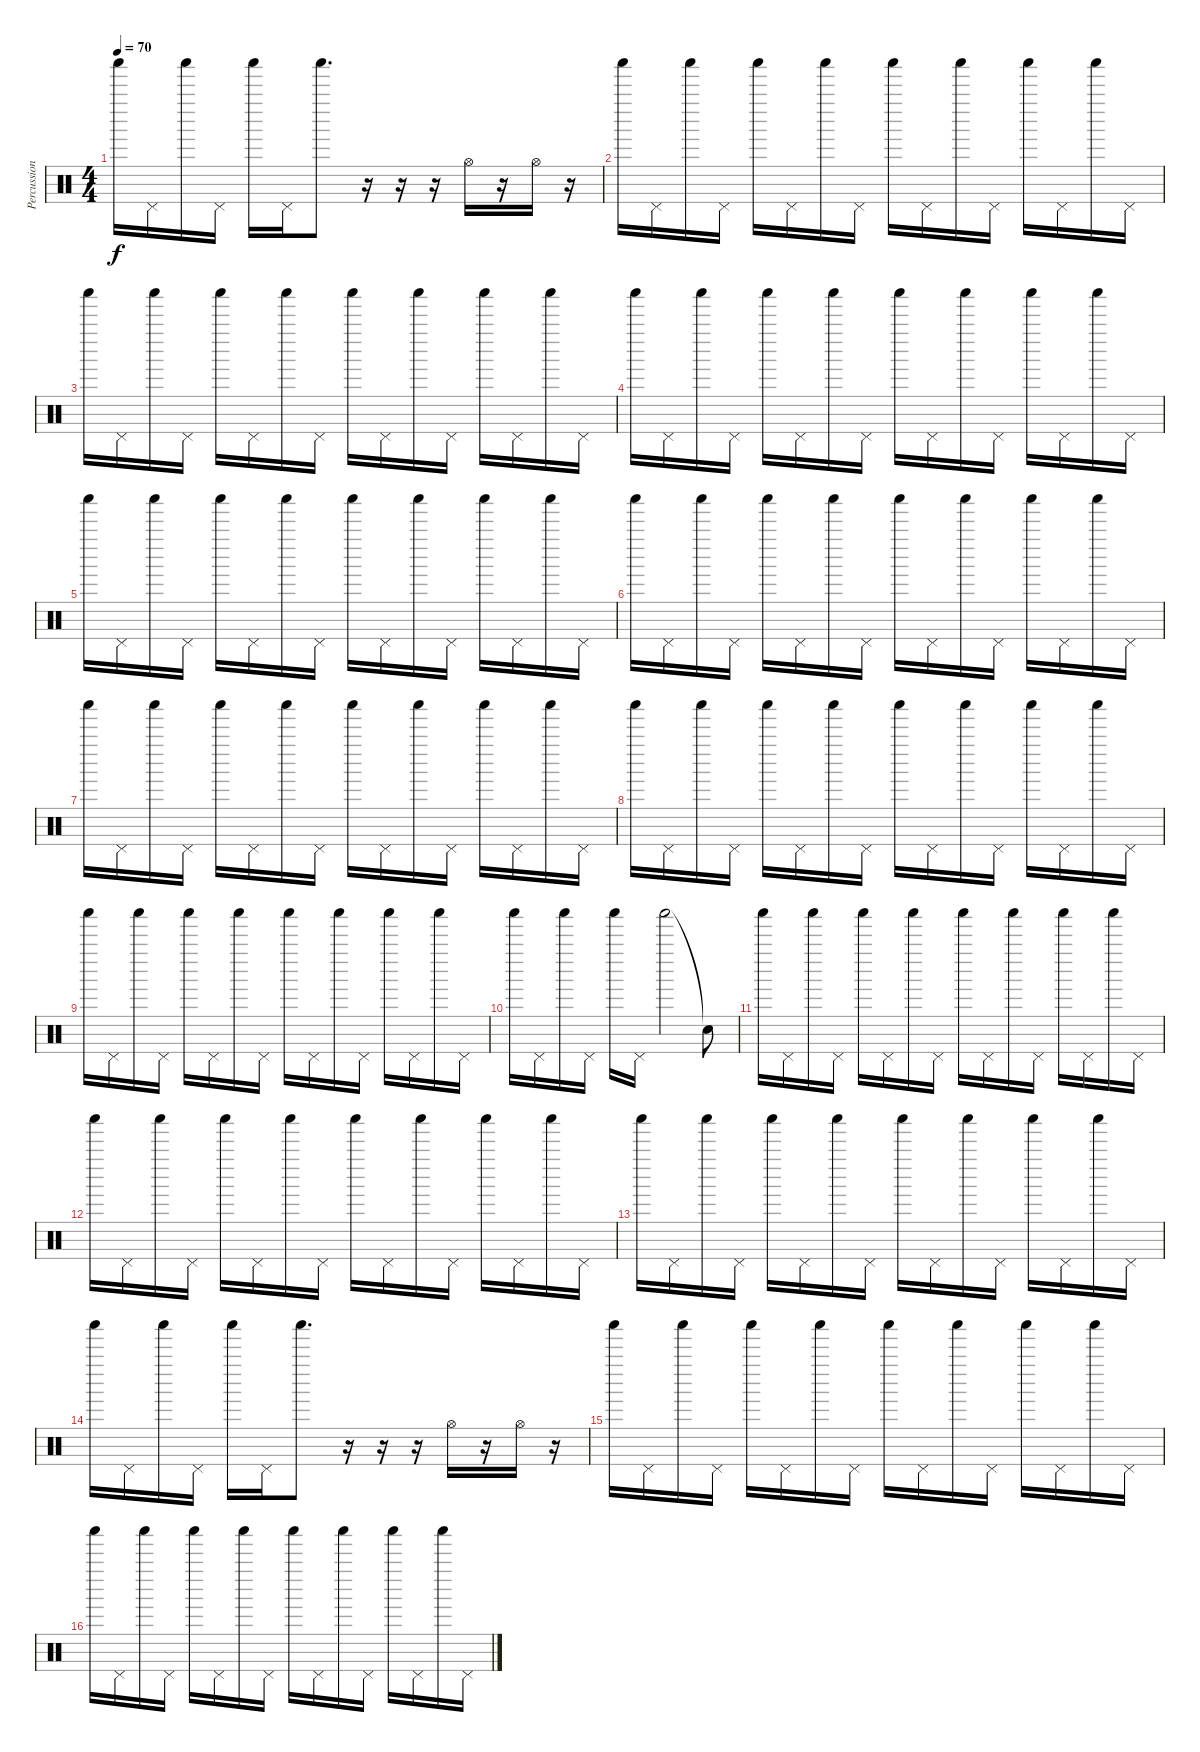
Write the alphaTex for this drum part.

\track ("Percussion 2" "Percussion") {instrument percussion}
\staff {score}
\articulation defaults
\ts (4 4)
\tempo 70
\clef neutral
\ks c "Shaker (hit)".16{dy f} "Pedal Hi-Hat (hit)".16 "Shaker (hit)".16 "Pedal Hi-Hat (hit)".16 "Shaker (hit)".16 "Pedal Hi-Hat (hit)".16 "Shaker (hit)".8{d}
r.16 r.16 r.16 "Hi-Hat (open)".16 r.16 "Hi-Hat (open)".16 r.16 |
"Shaker (hit)".16 "Pedal Hi-Hat (hit)".16 "Shaker (hit)".16 "Pedal Hi-Hat (hit)".16 "Shaker (hit)".16 "Pedal Hi-Hat (hit)".16 "Shaker (hit)".16 "Pedal Hi-Hat (hit)".16 "Shaker (hit)".16 "Pedal Hi-Hat (hit)".16 "Shaker (hit)".16 "Pedal Hi-Hat (hit)".16 "Shaker (hit)".16 "Pedal Hi-Hat (hit)".16 "Shaker (hit)".16 "Pedal Hi-Hat (hit)".16 |
"Shaker (hit)".16 "Pedal Hi-Hat (hit)".16 "Shaker (hit)".16 "Pedal Hi-Hat (hit)".16 "Shaker (hit)".16 "Pedal Hi-Hat (hit)".16 "Shaker (hit)".16 "Pedal Hi-Hat (hit)".16 "Shaker (hit)".16 "Pedal Hi-Hat (hit)".16 "Shaker (hit)".16 "Pedal Hi-Hat (hit)".16 "Shaker (hit)".16 "Pedal Hi-Hat (hit)".16 "Shaker (hit)".16 "Pedal Hi-Hat (hit)".16 |
"Shaker (hit)".16 "Pedal Hi-Hat (hit)".16 "Shaker (hit)".16 "Pedal Hi-Hat (hit)".16 "Shaker (hit)".16 "Pedal Hi-Hat (hit)".16 "Shaker (hit)".16 "Pedal Hi-Hat (hit)".16 "Shaker (hit)".16 "Pedal Hi-Hat (hit)".16 "Shaker (hit)".16 "Pedal Hi-Hat (hit)".16 "Shaker (hit)".16 "Pedal Hi-Hat (hit)".16 "Shaker (hit)".16 "Pedal Hi-Hat (hit)".16 |
"Shaker (hit)".16 "Pedal Hi-Hat (hit)".16 "Shaker (hit)".16 "Pedal Hi-Hat (hit)".16 "Shaker (hit)".16 "Pedal Hi-Hat (hit)".16 "Shaker (hit)".16 "Pedal Hi-Hat (hit)".16 "Shaker (hit)".16 "Pedal Hi-Hat (hit)".16 "Shaker (hit)".16 "Pedal Hi-Hat (hit)".16 "Shaker (hit)".16 "Pedal Hi-Hat (hit)".16 "Shaker (hit)".16 "Pedal Hi-Hat (hit)".16 |
"Shaker (hit)".16 "Pedal Hi-Hat (hit)".16 "Shaker (hit)".16 "Pedal Hi-Hat (hit)".16 "Shaker (hit)".16 "Pedal Hi-Hat (hit)".16 "Shaker (hit)".16 "Pedal Hi-Hat (hit)".16 "Shaker (hit)".16 "Pedal Hi-Hat (hit)".16 "Shaker (hit)".16 "Pedal Hi-Hat (hit)".16 "Shaker (hit)".16 "Pedal Hi-Hat (hit)".16 "Shaker (hit)".16 "Pedal Hi-Hat (hit)".16 |
"Shaker (hit)".16 "Pedal Hi-Hat (hit)".16 "Shaker (hit)".16 "Pedal Hi-Hat (hit)".16 "Shaker (hit)".16 "Pedal Hi-Hat (hit)".16 "Shaker (hit)".16 "Pedal Hi-Hat (hit)".16 "Shaker (hit)".16 "Pedal Hi-Hat (hit)".16 "Shaker (hit)".16 "Pedal Hi-Hat (hit)".16 "Shaker (hit)".16 "Pedal Hi-Hat (hit)".16 "Shaker (hit)".16 "Pedal Hi-Hat (hit)".16 |
"Shaker (hit)".16 "Pedal Hi-Hat (hit)".16 "Shaker (hit)".16 "Pedal Hi-Hat (hit)".16 "Shaker (hit)".16 "Pedal Hi-Hat (hit)".16 "Shaker (hit)".16 "Pedal Hi-Hat (hit)".16 "Shaker (hit)".16 "Pedal Hi-Hat (hit)".16 "Shaker (hit)".16 "Pedal Hi-Hat (hit)".16 "Shaker (hit)".16 "Pedal Hi-Hat (hit)".16 "Shaker (hit)".16 "Pedal Hi-Hat (hit)".16 |
"Shaker (hit)".16 "Pedal Hi-Hat (hit)".16 "Shaker (hit)".16 "Pedal Hi-Hat (hit)".16 "Shaker (hit)".16 "Pedal Hi-Hat (hit)".16 "Shaker (hit)".16 "Pedal Hi-Hat (hit)".16 "Shaker (hit)".16 "Pedal Hi-Hat (hit)".16 "Shaker (hit)".16 "Pedal Hi-Hat (hit)".16 "Shaker (hit)".16 "Pedal Hi-Hat (hit)".16 "Shaker (hit)".16 "Pedal Hi-Hat (hit)".16 |
"Shaker (hit)".16 "Pedal Hi-Hat (hit)".16 "Shaker (hit)".16 "Pedal Hi-Hat (hit)".16 "Shaker (hit)".16 "Pedal Hi-Hat (hit)".16 "Shaker (hit)".2 "Snare (hit)"{t}.8 |
"Shaker (hit)".16 "Pedal Hi-Hat (hit)".16 "Shaker (hit)".16 "Pedal Hi-Hat (hit)".16 "Shaker (hit)".16 "Pedal Hi-Hat (hit)".16 "Shaker (hit)".16 "Pedal Hi-Hat (hit)".16 "Shaker (hit)".16 "Pedal Hi-Hat (hit)".16 "Shaker (hit)".16 "Pedal Hi-Hat (hit)".16 "Shaker (hit)".16 "Pedal Hi-Hat (hit)".16 "Shaker (hit)".16 "Pedal Hi-Hat (hit)".16 |
"Shaker (hit)".16 "Pedal Hi-Hat (hit)".16 "Shaker (hit)".16 "Pedal Hi-Hat (hit)".16 "Shaker (hit)".16 "Pedal Hi-Hat (hit)".16 "Shaker (hit)".16 "Pedal Hi-Hat (hit)".16 "Shaker (hit)".16 "Pedal Hi-Hat (hit)".16 "Shaker (hit)".16 "Pedal Hi-Hat (hit)".16 "Shaker (hit)".16 "Pedal Hi-Hat (hit)".16 "Shaker (hit)".16 "Pedal Hi-Hat (hit)".16 |
"Shaker (hit)".16 "Pedal Hi-Hat (hit)".16 "Shaker (hit)".16 "Pedal Hi-Hat (hit)".16 "Shaker (hit)".16 "Pedal Hi-Hat (hit)".16 "Shaker (hit)".16 "Pedal Hi-Hat (hit)".16 "Shaker (hit)".16 "Pedal Hi-Hat (hit)".16 "Shaker (hit)".16 "Pedal Hi-Hat (hit)".16 "Shaker (hit)".16 "Pedal Hi-Hat (hit)".16 "Shaker (hit)".16 "Pedal Hi-Hat (hit)".16 |
"Shaker (hit)".16 "Pedal Hi-Hat (hit)".16 "Shaker (hit)".16 "Pedal Hi-Hat (hit)".16 "Shaker (hit)".16 "Pedal Hi-Hat (hit)".16 "Shaker (hit)".8{d} r.16 r.16 r.16 "Hi-Hat (open)".16 r.16 "Hi-Hat (open)".16 r.16 |
"Shaker (hit)".16 "Pedal Hi-Hat (hit)".16 "Shaker (hit)".16 "Pedal Hi-Hat (hit)".16 "Shaker (hit)".16 "Pedal Hi-Hat (hit)".16 "Shaker (hit)".16 "Pedal Hi-Hat (hit)".16 "Shaker (hit)".16 "Pedal Hi-Hat (hit)".16 "Shaker (hit)".16 "Pedal Hi-Hat (hit)".16 "Shaker (hit)".16 "Pedal Hi-Hat (hit)".16 "Shaker (hit)".16 "Pedal Hi-Hat (hit)".16 |
"Shaker (hit)".16 "Pedal Hi-Hat (hit)".16 "Shaker (hit)".16 "Pedal Hi-Hat (hit)".16 "Shaker (hit)".16 "Pedal Hi-Hat (hit)".16 "Shaker (hit)".16 "Pedal Hi-Hat (hit)".16 "Shaker (hit)".16 "Pedal Hi-Hat (hit)".16 "Shaker (hit)".16 "Pedal Hi-Hat (hit)".16 "Shaker (hit)".16 "Pedal Hi-Hat (hit)".16 "Shaker (hit)".16 "Pedal Hi-Hat (hit)".16
